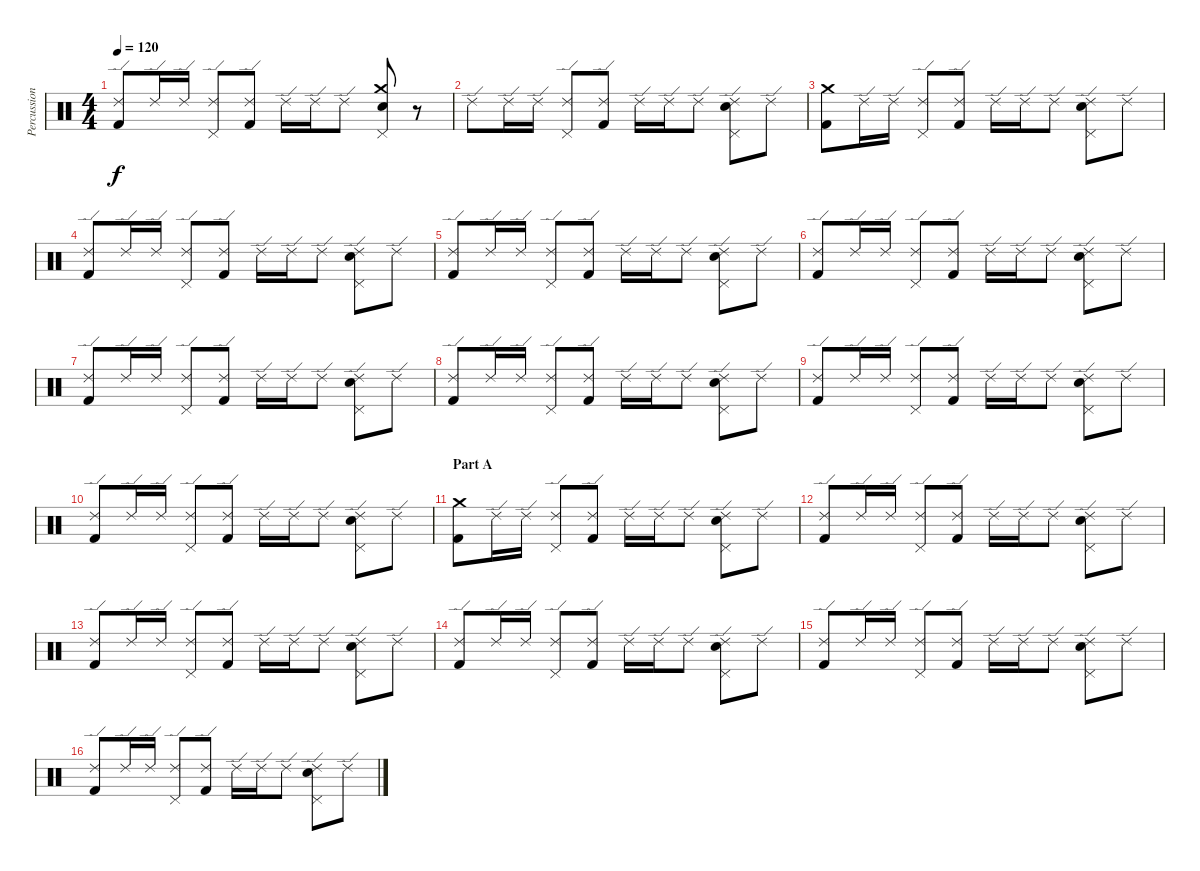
\track ("Percussion" "Percussion") {instrument percussion}
\staff {score}
\articulation defaults
\ts (4 4)
\tempo 120
\clef neutral
\ks c
("Ride (edge) 2" "Kick (hit) 2").8{dy f} "Ride (edge) 2".16 "Ride (edge) 2".16 ("Ride (edge) 2" "Pedal Hi-Hat (hit)").8 ("Ride (edge) 2" "Kick (hit) 2").8 "Ride (edge) 2".16 "Ride (edge) 2".16 "Ride (edge) 2".8 ("Crash medium (hit)" "Pedal Hi-Hat (hit)" "Snare (hit) 2").8 r.8 |
"Ride (edge) 2".8 "Ride (edge) 2".16 "Ride (edge) 2".16 ("Ride (edge) 2" "Pedal Hi-Hat (hit)").8 ("Ride (edge) 2" "Kick (hit) 2").8 "Ride (edge) 2".16 "Ride (edge) 2".16 "Ride (edge) 2".8 ("Ride (edge) 2" "Pedal Hi-Hat (hit)" "Snare (hit) 2").8 "Ride (edge) 2".8 |
("Crash medium (hit)" "Kick (hit) 2").8 "Ride (edge) 2".16 "Ride (edge) 2".16 ("Ride (edge) 2" "Pedal Hi-Hat (hit)").8 ("Ride (edge) 2" "Kick (hit) 2").8 "Ride (edge) 2".16 "Ride (edge) 2".16 "Ride (edge) 2".8 ("Ride (edge) 2" "Pedal Hi-Hat (hit)" "Snare (hit) 2").8 "Ride (edge) 2".8 |
("Ride (edge) 2" "Kick (hit) 2").8 "Ride (edge) 2".16 "Ride (edge) 2".16 ("Ride (edge) 2" "Pedal Hi-Hat (hit)").8 ("Ride (edge) 2" "Kick (hit) 2").8 "Ride (edge) 2".16 "Ride (edge) 2".16 "Ride (edge) 2".8 ("Ride (edge) 2" "Pedal Hi-Hat (hit)" "Snare (hit) 2").8 "Ride (edge) 2".8 |
("Ride (edge) 2" "Kick (hit) 2").8 "Ride (edge) 2".16 "Ride (edge) 2".16 ("Ride (edge) 2" "Pedal Hi-Hat (hit)").8 ("Ride (edge) 2" "Kick (hit) 2").8 "Ride (edge) 2".16 "Ride (edge) 2".16 "Ride (edge) 2".8 ("Ride (edge) 2" "Pedal Hi-Hat (hit)" "Snare (hit) 2").8 "Ride (edge) 2".8 |
("Ride (edge) 2" "Kick (hit) 2").8 "Ride (edge) 2".16 "Ride (edge) 2".16 ("Ride (edge) 2" "Pedal Hi-Hat (hit)").8 ("Ride (edge) 2" "Kick (hit) 2").8 "Ride (edge) 2".16 "Ride (edge) 2".16 "Ride (edge) 2".8 ("Ride (edge) 2" "Pedal Hi-Hat (hit)" "Snare (hit) 2").8 "Ride (edge) 2".8 |
("Ride (edge) 2" "Kick (hit) 2").8 "Ride (edge) 2".16 "Ride (edge) 2".16 ("Ride (edge) 2" "Pedal Hi-Hat (hit)").8 ("Ride (edge) 2" "Kick (hit) 2").8 "Ride (edge) 2".16 "Ride (edge) 2".16 "Ride (edge) 2".8 ("Ride (edge) 2" "Pedal Hi-Hat (hit)" "Snare (hit) 2").8 "Ride (edge) 2".8 |
("Ride (edge) 2" "Kick (hit) 2").8 "Ride (edge) 2".16 "Ride (edge) 2".16 ("Ride (edge) 2" "Pedal Hi-Hat (hit)").8 ("Ride (edge) 2" "Kick (hit) 2").8 "Ride (edge) 2".16 "Ride (edge) 2".16 "Ride (edge) 2".8 ("Ride (edge) 2" "Pedal Hi-Hat (hit)" "Snare (hit) 2").8 "Ride (edge) 2".8 |
("Ride (edge) 2" "Kick (hit) 2").8 "Ride (edge) 2".16 "Ride (edge) 2".16 ("Ride (edge) 2" "Pedal Hi-Hat (hit)").8 ("Ride (edge) 2" "Kick (hit) 2").8 "Ride (edge) 2".16 "Ride (edge) 2".16 "Ride (edge) 2".8 ("Ride (edge) 2" "Pedal Hi-Hat (hit)" "Snare (hit) 2").8 "Ride (edge) 2".8 |
("Ride (edge) 2" "Kick (hit) 2").8 "Ride (edge) 2".16 "Ride (edge) 2".16 ("Ride (edge) 2" "Pedal Hi-Hat (hit)").8 ("Ride (edge) 2" "Kick (hit) 2").8 "Ride (edge) 2".16 "Ride (edge) 2".16 "Ride (edge) 2".8 ("Ride (edge) 2" "Pedal Hi-Hat (hit)" "Snare (hit) 2").8 "Ride (edge) 2".8 |
\section ("" "Part A")
("Crash medium (hit)" "Kick (hit) 2").8 "Ride (edge) 2".16 "Ride (edge) 2".16 ("Ride (edge) 2" "Pedal Hi-Hat (hit)").8 ("Ride (edge) 2" "Kick (hit) 2").8 "Ride (edge) 2".16 "Ride (edge) 2".16 "Ride (edge) 2".8 ("Ride (edge) 2" "Pedal Hi-Hat (hit)" "Snare (hit) 2").8 "Ride (edge) 2".8 |
("Ride (edge) 2" "Kick (hit) 2").8 "Ride (edge) 2".16 "Ride (edge) 2".16 ("Ride (edge) 2" "Pedal Hi-Hat (hit)").8 ("Ride (edge) 2" "Kick (hit) 2").8 "Ride (edge) 2".16 "Ride (edge) 2".16 "Ride (edge) 2".8 ("Ride (edge) 2" "Pedal Hi-Hat (hit)" "Snare (hit) 2").8 "Ride (edge) 2".8 |
("Ride (edge) 2" "Kick (hit) 2").8 "Ride (edge) 2".16 "Ride (edge) 2".16 ("Ride (edge) 2" "Pedal Hi-Hat (hit)").8 ("Ride (edge) 2" "Kick (hit) 2").8 "Ride (edge) 2".16 "Ride (edge) 2".16 "Ride (edge) 2".8 ("Ride (edge) 2" "Pedal Hi-Hat (hit)" "Snare (hit) 2").8 "Ride (edge) 2".8 |
("Ride (edge) 2" "Kick (hit) 2").8 "Ride (edge) 2".16 "Ride (edge) 2".16 ("Ride (edge) 2" "Pedal Hi-Hat (hit)").8 ("Ride (edge) 2" "Kick (hit) 2").8 "Ride (edge) 2".16 "Ride (edge) 2".16 "Ride (edge) 2".8 ("Ride (edge) 2" "Pedal Hi-Hat (hit)" "Snare (hit) 2").8 "Ride (edge) 2".8 |
("Ride (edge) 2" "Kick (hit) 2").8 "Ride (edge) 2".16 "Ride (edge) 2".16 ("Ride (edge) 2" "Pedal Hi-Hat (hit)").8 ("Ride (edge) 2" "Kick (hit) 2").8 "Ride (edge) 2".16 "Ride (edge) 2".16 "Ride (edge) 2".8 ("Ride (edge) 2" "Pedal Hi-Hat (hit)" "Snare (hit) 2").8 "Ride (edge) 2".8 |
("Ride (edge) 2" "Kick (hit) 2").8 "Ride (edge) 2".16 "Ride (edge) 2".16 ("Ride (edge) 2" "Pedal Hi-Hat (hit)").8 ("Ride (edge) 2" "Kick (hit) 2").8 "Ride (edge) 2".16 "Ride (edge) 2".16 "Ride (edge) 2".8 ("Ride (edge) 2" "Pedal Hi-Hat (hit)" "Snare (hit) 2").8 "Ride (edge) 2".8
